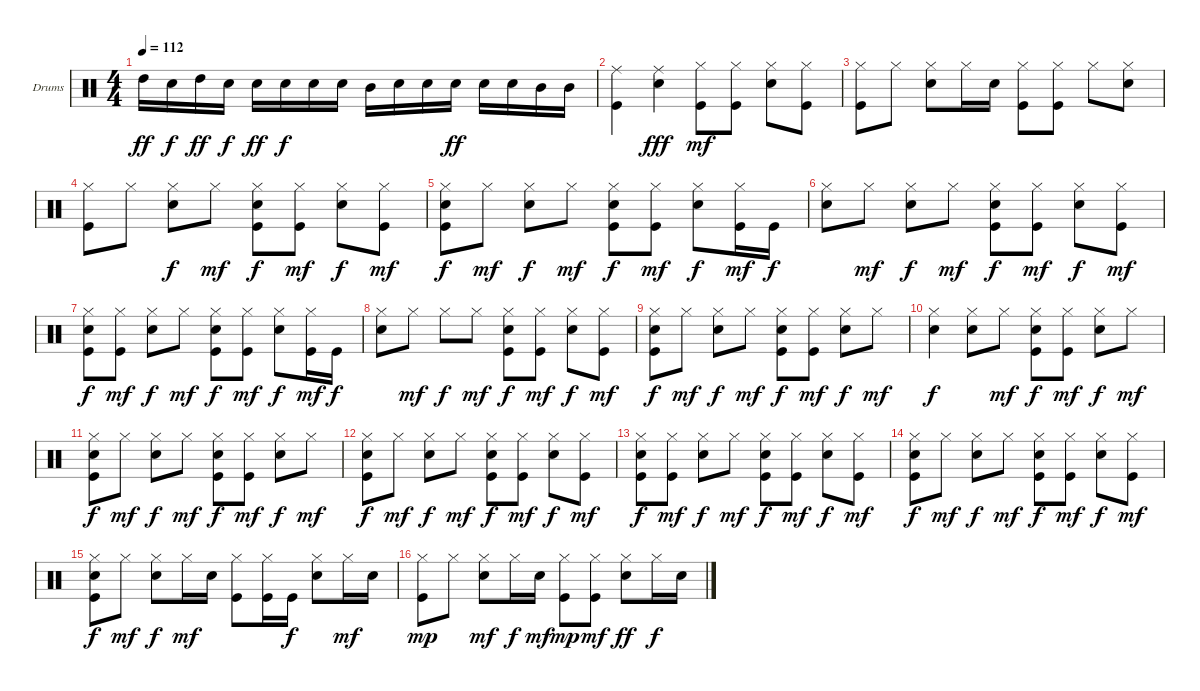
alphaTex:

\bracketExtendMode groupsimilarinstruments
\firstSystemTrackNameOrientation horizontal
\otherSystemsTrackNameOrientation horizontal
\track ("Drumkit" "Drums") {instrument percussion}
\staff {score}
\articulation defaults
\ts (4 4)
\tempo 112
\clef neutral
\ks c "High Tom (hit)".16{dy ff} "Snare (hit) 2".16{dy f} "High Tom (hit)".16{dy ff} "Snare (hit) 2".16{dy f} "Snare (hit) 2".16{dy ff} "Snare (hit) 2".16{dy f} "Snare (hit) 2".16 "Snare (hit) 2".16 "Mid Tom (hit)".16 "Snare (hit) 2".16 "Snare (hit) 2".16 "Snare (hit) 2".16{dy ff} "Snare (hit) 2".16 "Snare (hit) 2".16 "Mid Tom (hit)".16 "Mid Tom (hit)".16
|
("Ride (middle)" "Kick (hit)").4 ("Ride (middle)" "Snare (hit) 2").4{dy fff} ("Hi-Hat (closed)" "Kick (hit)").8{dy mf} ("Hi-Hat (closed)" "Kick (hit)").8 ("Hi-Hat (closed)" "Snare (hit) 2").8 ("Hi-Hat (closed)" "Kick (hit)").8 |
("Hi-Hat (closed)" "Kick (hit)").8 "Hi-Hat (closed)".8 ("Hi-Hat (closed)" "Snare (hit) 2").8 "Hi-Hat (closed)".16 "Snare (hit) 2".16 ("Hi-Hat (closed)" "Kick (hit)").8 ("Hi-Hat (closed)" "Kick (hit)").8 "Hi-Hat (closed)".8 ("Hi-Hat (closed)" "Snare (hit) 2").8 |
("Hi-Hat (closed)" "Kick (hit)").8 "Hi-Hat (closed)".8 ("Hi-Hat (closed)" "Snare (hit) 2").8{dy f} "Hi-Hat (closed)".8{dy mf} ("Hi-Hat (closed)" "Snare (hit) 2" "Kick (hit)").8{dy f} ("Hi-Hat (closed)" "Kick (hit)").8{dy mf} ("Hi-Hat (closed)" "Snare (hit) 2").8{dy f} ("Hi-Hat (closed)" "Kick (hit)").8{dy mf} |
("Hi-Hat (closed)" "Snare (hit) 2" "Kick (hit)").8{dy f} "Hi-Hat (closed)".8{dy mf} ("Hi-Hat (closed)" "Snare (hit) 2").8{dy f} "Hi-Hat (closed)".8{dy mf} ("Hi-Hat (closed)" "Snare (hit) 2" "Kick (hit)").8{dy f} ("Hi-Hat (closed)" "Kick (hit)").8{dy mf} ("Hi-Hat (closed)" "Snare (hit) 2").8{dy f} ("Hi-Hat (closed)" "Kick (hit)").16{dy mf} "Kick (hit)".16{dy f} |
("Hi-Hat (closed)" "Snare (hit) 2").8 "Hi-Hat (closed)".8{dy mf} ("Hi-Hat (closed)" "Snare (hit) 2").8{dy f} "Hi-Hat (closed)".8{dy mf} ("Hi-Hat (closed)" "Snare (hit) 2" "Kick (hit)").8{dy f} ("Hi-Hat (closed)" "Kick (hit)").8{dy mf} ("Hi-Hat (closed)" "Snare (hit) 2").8{dy f} ("Hi-Hat (closed)" "Kick (hit)").8{dy mf} |
("Hi-Hat (closed)" "Snare (hit) 2" "Kick (hit)").8{dy f} ("Hi-Hat (closed)" "Kick (hit)").8{dy mf} ("Hi-Hat (closed)" "Snare (hit) 2").8{dy f} "Hi-Hat (closed)".8{dy mf} ("Hi-Hat (closed)" "Snare (hit) 2" "Kick (hit)").8{dy f} ("Hi-Hat (closed)" "Kick (hit)").8{dy mf} ("Hi-Hat (closed)" "Snare (hit) 2").8{dy f} ("Hi-Hat (closed)" "Kick (hit)").16{dy mf} "Kick (hit)".16{dy f} |
("Hi-Hat (closed)" "Snare (hit) 2").8 "Hi-Hat (closed)".8{dy mf} "Hi-Hat (closed)".8{dy f} "Hi-Hat (closed)".8{dy mf} ("Hi-Hat (closed)" "Snare (hit) 2" "Kick (hit)").8{dy f} ("Hi-Hat (closed)" "Kick (hit)").8{dy mf} ("Hi-Hat (closed)" "Snare (hit) 2").8{dy f} ("Hi-Hat (closed)" "Kick (hit)").8{dy mf} |
("Hi-Hat (closed)" "Snare (hit) 2" "Kick (hit)").8{dy f} "Hi-Hat (closed)".8{dy mf} ("Hi-Hat (closed)" "Snare (hit) 2").8{dy f} "Hi-Hat (closed)".8{dy mf} ("Hi-Hat (closed)" "Snare (hit) 2" "Kick (hit)").8{dy f} ("Hi-Hat (closed)" "Kick (hit)").8{dy mf} ("Hi-Hat (closed)" "Snare (hit) 2").8{dy f} "Hi-Hat (closed)".8{dy mf} |
("Hi-Hat (closed)" "Snare (hit) 2").4{dy f} ("Hi-Hat (closed)" "Snare (hit) 2").8 "Hi-Hat (closed)".8{dy mf} ("Hi-Hat (closed)" "Snare (hit) 2" "Kick (hit)").8{dy f} ("Hi-Hat (closed)" "Kick (hit)").8{dy mf} ("Hi-Hat (closed)" "Snare (hit) 2").8{dy f} "Hi-Hat (closed)".8{dy mf} |
("Hi-Hat (closed)" "Snare (hit) 2" "Kick (hit)").8{dy f} "Hi-Hat (closed)".8{dy mf} ("Hi-Hat (closed)" "Snare (hit) 2").8{dy f} "Hi-Hat (closed)".8{dy mf} ("Hi-Hat (closed)" "Snare (hit) 2" "Kick (hit)").8{dy f} ("Hi-Hat (closed)" "Kick (hit)").8{dy mf} ("Hi-Hat (closed)" "Snare (hit) 2").8{dy f} "Hi-Hat (closed)".8{dy mf} |
("Hi-Hat (closed)" "Snare (hit) 2" "Kick (hit)").8{dy f} "Hi-Hat (closed)".8{dy mf} ("Hi-Hat (closed)" "Snare (hit) 2").8{dy f} "Hi-Hat (closed)".8{dy mf} ("Hi-Hat (closed)" "Snare (hit) 2" "Kick (hit)").8{dy f} ("Hi-Hat (closed)" "Kick (hit)").8{dy mf} ("Hi-Hat (closed)" "Snare (hit) 2").8{dy f} ("Hi-Hat (closed)" "Kick (hit)").8{dy mf} |
("Hi-Hat (closed)" "Snare (hit) 2" "Kick (hit)").8{dy f} ("Hi-Hat (closed)" "Kick (hit)").8{dy mf} ("Hi-Hat (closed)" "Snare (hit) 2").8{dy f} "Hi-Hat (closed)".8{dy mf} ("Hi-Hat (closed)" "Snare (hit) 2" "Kick (hit)").8{dy f} ("Hi-Hat (closed)" "Kick (hit)").8{dy mf} ("Hi-Hat (closed)" "Snare (hit) 2").8{dy f} ("Hi-Hat (closed)" "Kick (hit)").8{dy mf} |
("Hi-Hat (closed)" "Snare (hit) 2" "Kick (hit)").8{dy f} "Hi-Hat (closed)".8{dy mf} ("Hi-Hat (closed)" "Snare (hit) 2").8{dy f} "Hi-Hat (closed)".8{dy mf} ("Hi-Hat (closed)" "Snare (hit) 2" "Kick (hit)").8{dy f} ("Hi-Hat (closed)" "Kick (hit)").8{dy mf} ("Hi-Hat (closed)" "Snare (hit) 2").8{dy f} ("Hi-Hat (closed)" "Kick (hit)").8{dy mf} |
("Hi-Hat (closed)" "Snare (hit) 2" "Kick (hit)").8{dy f} "Hi-Hat (closed)".8{dy mf} ("Hi-Hat (closed)" "Snare (hit) 2").8{dy f} "Hi-Hat (closed)".16{dy mf} "Snare (hit) 2".16 ("Hi-Hat (closed)" "Kick (hit)").8 ("Hi-Hat (closed)" "Kick (hit)").16 "Kick (hit)".16{dy f} ("Hi-Hat (closed)" "Snare (hit) 2").8 "Hi-Hat (closed)".16{dy mf} "Snare (hit) 2".16 |
("Hi-Hat (closed)" "Kick (hit)").8{dy mp} "Hi-Hat (closed)".8 ("Hi-Hat (closed)" "Snare (hit) 2").8{dy mf} "Hi-Hat (closed)".16{dy f} "Snare (hit) 2".16{dy mf} ("Hi-Hat (closed)" "Kick (hit)").8{dy mp} ("Hi-Hat (closed)" "Kick (hit)").8{dy mf} ("Hi-Hat (closed)" "Snare (hit) 2").8{dy ff} "Hi-Hat (closed)".16{dy f} "Snare (hit) 2".16
